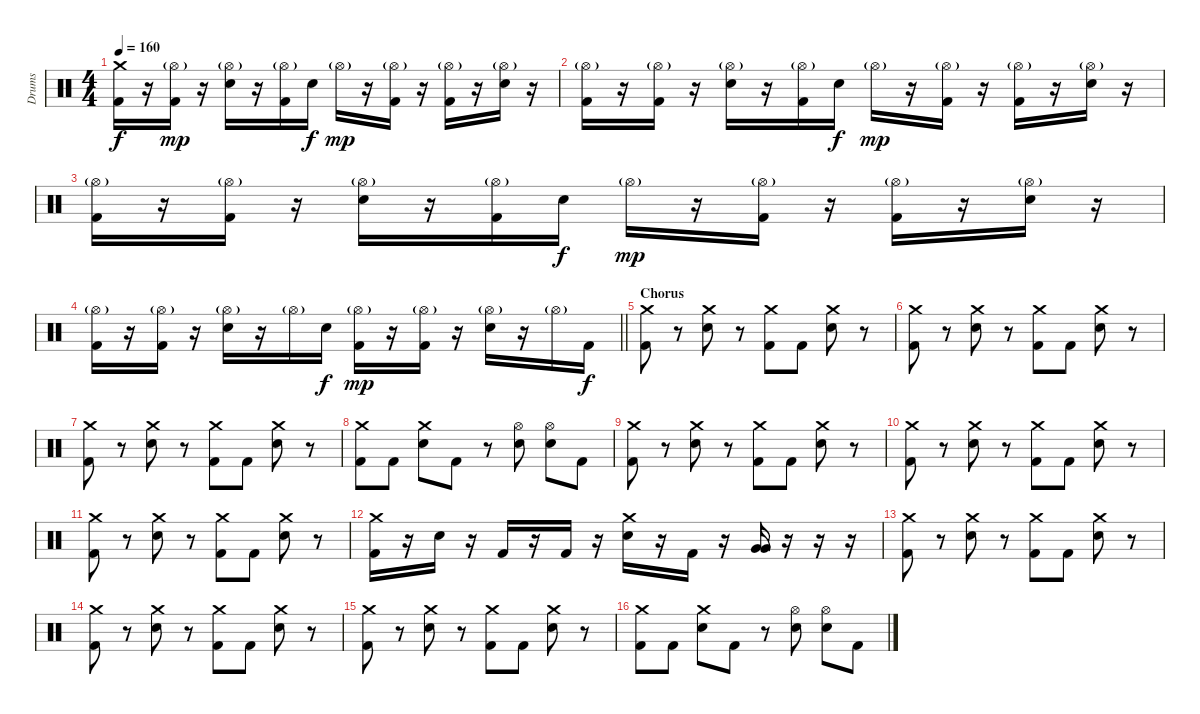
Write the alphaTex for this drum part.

\track ("Drums" "Drums") {instrument percussion}
\staff {score}
\articulation defaults
\ts (4 4)
\tempo 160
\clef neutral
\ks c
("Crash medium (hit)" "Kick (hit) 2").16{dy f} r.16 ("Hi-Hat (open)"{g} "Kick (hit) 2").16{dy mp} r.16 ("Hi-Hat (open)"{g} "Electric Snare (hit)").16 r.16 ("Hi-Hat (open)"{g} "Kick (hit) 2").16 "Electric Snare (hit)".16{dy f} "Hi-Hat (open)"{g}.16{dy mp} r.16 ("Hi-Hat (open)"{g} "Kick (hit) 2").16 r.16 ("Hi-Hat (open)"{g} "Kick (hit) 2").16 r.16 ("Hi-Hat (open)"{g} "Electric Snare (hit)").16 r.16 |
("Hi-Hat (open)"{g} "Kick (hit) 2").16 r.16 ("Hi-Hat (open)"{g} "Kick (hit) 2").16 r.16 ("Hi-Hat (open)"{g} "Electric Snare (hit)").16 r.16 ("Hi-Hat (open)"{g} "Kick (hit) 2").16 "Electric Snare (hit)".16{dy f} "Hi-Hat (open)"{g}.16{dy mp} r.16 ("Hi-Hat (open)"{g} "Kick (hit) 2").16 r.16 ("Hi-Hat (open)"{g} "Kick (hit) 2").16 r.16 ("Hi-Hat (open)"{g} "Electric Snare (hit)").16 r.16 |
("Hi-Hat (open)"{g} "Kick (hit) 2").16 r.16 ("Hi-Hat (open)"{g} "Kick (hit) 2").16 r.16 ("Hi-Hat (open)"{g} "Electric Snare (hit)").16 r.16 ("Hi-Hat (open)"{g} "Kick (hit) 2").16 "Electric Snare (hit)".16{dy f} "Hi-Hat (open)"{g}.16{dy mp} r.16 ("Hi-Hat (open)"{g} "Kick (hit) 2").16 r.16 ("Hi-Hat (open)"{g} "Kick (hit) 2").16 r.16 ("Hi-Hat (open)"{g} "Electric Snare (hit)").16 r.16 |
\barLineRight lightlight
("Hi-Hat (open)"{g} "Kick (hit) 2").16 r.16 ("Hi-Hat (open)"{g} "Kick (hit) 2").16 r.16 ("Hi-Hat (open)"{g} "Electric Snare (hit)").16 r.16 "Hi-Hat (open)"{g}.16 "Electric Snare (hit)".16{dy f} ("Hi-Hat (open)"{g} "Kick (hit) 2").16{dy mp} r.16 ("Hi-Hat (open)"{g} "Kick (hit) 2").16 r.16 ("Hi-Hat (open)"{g} "Electric Snare (hit)").16 r.16 "Hi-Hat (open)"{g}.16 "Kick (hit) 2".16{dy f} |
\section ("" "Chorus")
("Crash medium (hit)" "Kick (hit) 2").8 r.8 ("Crash medium (hit)" "Electric Snare (hit)").8 r.8 ("Crash medium (hit)" "Kick (hit) 2").8 "Kick (hit) 2".8 ("Crash medium (hit)" "Electric Snare (hit)").8 r.8 |
("Crash medium (hit)" "Kick (hit) 2").8 r.8 ("Crash medium (hit)" "Electric Snare (hit)").8 r.8 ("Crash medium (hit)" "Kick (hit) 2").8 "Kick (hit) 2".8 ("Crash medium (hit)" "Electric Snare (hit)").8 r.8 |
("Crash medium (hit)" "Kick (hit) 2").8 r.8 ("Crash medium (hit)" "Electric Snare (hit)").8 r.8 ("Crash medium (hit)" "Kick (hit) 2").8 "Kick (hit) 2".8 ("Crash medium (hit)" "Electric Snare (hit)").8 r.8 |
("Crash medium (hit)" "Kick (hit) 2").8 "Kick (hit) 2".8 ("Crash medium (hit)" "Electric Snare (hit)").8 "Kick (hit) 2".8 r.8 ("Hi-Hat (open)" "Electric Snare (hit)").8 ("Hi-Hat (open)" "Electric Snare (hit)").8 "Kick (hit) 2".8 |
("Crash medium (hit)" "Kick (hit) 2").8 r.8 ("Crash medium (hit)" "Electric Snare (hit)").8 r.8 ("Crash medium (hit)" "Kick (hit) 2").8 "Kick (hit) 2".8 ("Crash medium (hit)" "Electric Snare (hit)").8 r.8 |
("Crash medium (hit)" "Kick (hit) 2").8 r.8 ("Crash medium (hit)" "Electric Snare (hit)").8 r.8 ("Crash medium (hit)" "Kick (hit) 2").8 "Kick (hit) 2".8 ("Crash medium (hit)" "Electric Snare (hit)").8 r.8 |
("Crash medium (hit)" "Kick (hit) 2").8 r.8 ("Crash medium (hit)" "Electric Snare (hit)").8 r.8 ("Crash medium (hit)" "Kick (hit) 2").8 "Kick (hit) 2".8 ("Crash medium (hit)" "Electric Snare (hit)").8 r.8 |
("Crash medium (hit)" "Kick (hit) 2").16 r.16 "Electric Snare (hit)".16 r.16 "Kick (hit) 2".16 r.16 "Kick (hit) 2".16 r.16 ("Crash medium (hit)" "Electric Snare (hit)").16 r.16 "Kick (hit) 2".16 r.16 ("Very Low Tom (hit)" "Very Low Tom (hit)").16 r.16 r.16 r.16 |
("Crash medium (hit)" "Kick (hit) 2").8 r.8 ("Crash medium (hit)" "Electric Snare (hit)").8 r.8 ("Crash medium (hit)" "Kick (hit) 2").8 "Kick (hit) 2".8 ("Crash medium (hit)" "Electric Snare (hit)").8 r.8 |
("Crash medium (hit)" "Kick (hit) 2").8 r.8 ("Crash medium (hit)" "Electric Snare (hit)").8 r.8 ("Crash medium (hit)" "Kick (hit) 2").8 "Kick (hit) 2".8 ("Crash medium (hit)" "Electric Snare (hit)").8 r.8 |
("Crash medium (hit)" "Kick (hit) 2").8 r.8 ("Crash medium (hit)" "Electric Snare (hit)").8 r.8 ("Crash medium (hit)" "Kick (hit) 2").8 "Kick (hit) 2".8 ("Crash medium (hit)" "Electric Snare (hit)").8 r.8 |
("Crash medium (hit)" "Kick (hit) 2").8 "Kick (hit) 2".8 ("Crash medium (hit)" "Electric Snare (hit)").8 "Kick (hit) 2".8 r.8 ("Hi-Hat (open)" "Electric Snare (hit)").8 ("Hi-Hat (open)" "Electric Snare (hit)").8 "Kick (hit) 2".8
